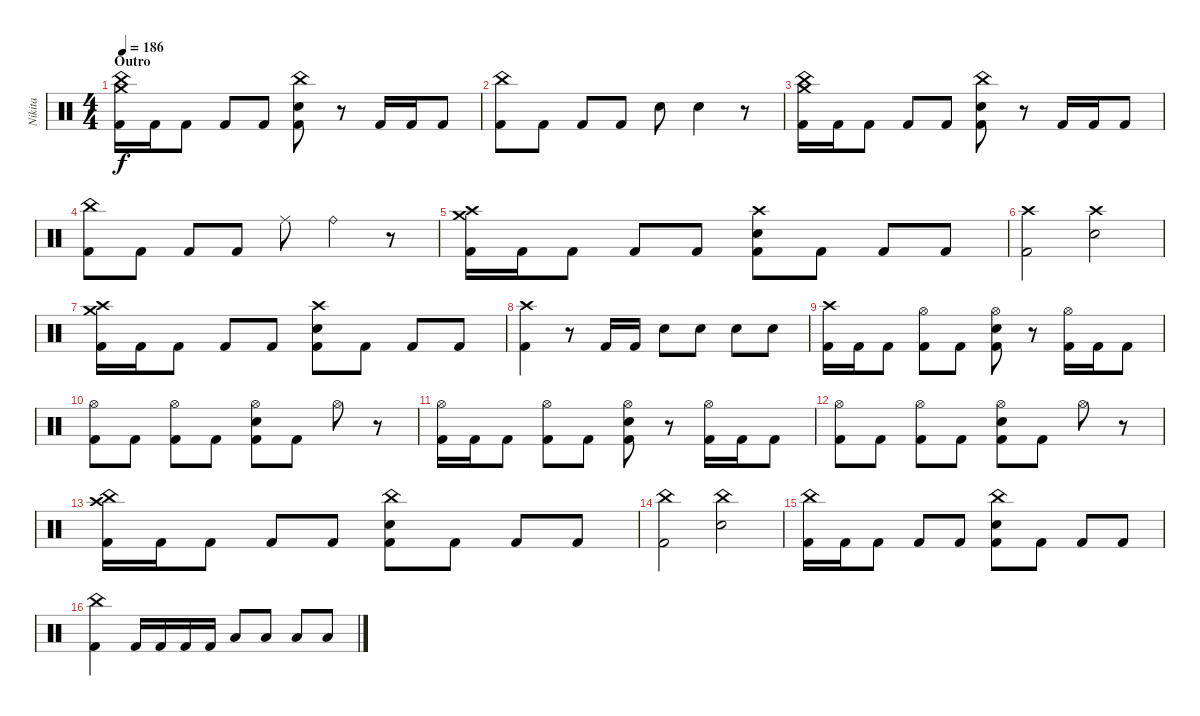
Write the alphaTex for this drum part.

\track ("Nikita" "Nikita") {instrument percussion}
\staff {score}
\articulation defaults
\ts (4 4)
\section ("" "Outro")
\tempo 186
\clef neutral
\ks c
("China (hit)" "Crash medium (hit)" "Kick (hit) 2").16{dy f} "Kick (hit) 2".16 "Kick (hit) 2".8 "Kick (hit) 2".8 "Kick (hit) 2".8 ("China (hit)" "Electric Snare (hit)" "Kick (hit) 2").8 r.8 "Kick (hit) 2".16 "Kick (hit) 2".16 "Kick (hit) 2".8 |
("China (hit)" "Kick (hit) 2").8 "Kick (hit) 2".8 "Kick (hit) 2".8 "Kick (hit) 2".8 "Electric Snare (hit)".8 "Electric Snare (hit)".4 r.8 |
("China (hit)" "Crash medium (hit)" "Kick (hit) 2").16 "Kick (hit) 2".16 "Kick (hit) 2".8 "Kick (hit) 2".8 "Kick (hit) 2".8 ("China (hit)" "Electric Snare (hit)" "Kick (hit) 2").8 r.8 "Kick (hit) 2".16 "Kick (hit) 2".16 "Kick (hit) 2".8 |
("China (hit)" "Kick (hit) 2").8 "Kick (hit) 2".8 "Kick (hit) 2".8 "Kick (hit) 2".8 "Ride (middle)".8 "Ride (bell)".4 r.8 |
("Crash high (hit)" "Crash medium (hit)" "Kick (hit) 2").16 "Kick (hit) 2".16 "Kick (hit) 2".8 "Kick (hit) 2".8 "Kick (hit) 2".8 ("Crash high (hit)" "Electric Snare (hit)" "Kick (hit) 2").8 "Kick (hit) 2".8 "Kick (hit) 2".8 "Kick (hit) 2".8 |
("Crash high (hit)" "Kick (hit) 2").2 ("Crash high (hit)" "Electric Snare (hit)").2 |
("Crash high (hit)" "Crash medium (hit)" "Kick (hit) 2").16 "Kick (hit) 2".16 "Kick (hit) 2".8 "Kick (hit) 2".8 "Kick (hit) 2".8 ("Crash high (hit)" "Electric Snare (hit)" "Kick (hit) 2").8 "Kick (hit) 2".8 "Kick (hit) 2".8 "Kick (hit) 2".8 |
("Crash high (hit)" "Kick (hit) 2").4 r.8 "Kick (hit) 2".16 "Kick (hit) 2".16 "Electric Snare (hit)".8 "Electric Snare (hit)".8 "Electric Snare (hit)".8 "Electric Snare (hit)".8 |
("Crash high (hit)" "Kick (hit) 2").16 "Kick (hit) 2".16 "Kick (hit) 2".8 ("Hi-Hat (open)" "Kick (hit) 2").8 "Kick (hit) 2".8 ("Hi-Hat (open)" "Electric Snare (hit)" "Kick (hit) 2").8 r.8 ("Hi-Hat (open)" "Kick (hit) 2").16 "Kick (hit) 2".16 "Kick (hit) 2".8 |
("Hi-Hat (open)" "Kick (hit) 2").8 "Kick (hit) 2".8 ("Hi-Hat (open)" "Kick (hit) 2").8 "Kick (hit) 2".8 ("Hi-Hat (open)" "Electric Snare (hit)" "Kick (hit) 2").8 "Kick (hit) 2".8 "Hi-Hat (open)".8 r.8 |
("Hi-Hat (open)" "Kick (hit) 2").16 "Kick (hit) 2".16 "Kick (hit) 2".8 ("Hi-Hat (open)" "Kick (hit) 2").8 "Kick (hit) 2".8 ("Hi-Hat (open)" "Electric Snare (hit)" "Kick (hit) 2").8 r.8 ("Hi-Hat (open)" "Kick (hit) 2").16 "Kick (hit) 2".16 "Kick (hit) 2".8 |
("Hi-Hat (open)" "Kick (hit) 2").8 "Kick (hit) 2".8 ("Hi-Hat (open)" "Kick (hit) 2").8 "Kick (hit) 2".8 ("Hi-Hat (open)" "Electric Snare (hit)" "Kick (hit) 2").8 "Kick (hit) 2".8 "Hi-Hat (open)".8 r.8 |
("Crash high (hit)" "China (hit)" "Kick (hit) 2").16 "Kick (hit) 2".16 "Kick (hit) 2".8 "Kick (hit) 2".8 "Kick (hit) 2".8 ("China (hit)" "Electric Snare (hit)" "Kick (hit) 2").8 "Kick (hit) 2".8 "Kick (hit) 2".8 "Kick (hit) 2".8 |
("China (hit)" "Kick (hit) 2").2 ("China (hit)" "Electric Snare (hit)").2 |
("China (hit)" "Kick (hit) 2").16 "Kick (hit) 2".16 "Kick (hit) 2".8 "Kick (hit) 2".8 "Kick (hit) 2".8 ("China (hit)" "Electric Snare (hit)" "Kick (hit) 2").8 "Kick (hit) 2".8 "Kick (hit) 2".8 "Kick (hit) 2".8 |
("China (hit)" "Kick (hit) 2").4 "Kick (hit) 2".16 "Kick (hit) 2".16 "Kick (hit) 2".16 "Kick (hit) 2".16 "Low Tom (hit)".8 "Low Floor Tom (hit)".8 "Low Tom (hit)".8 "Low Floor Tom (hit)".8
